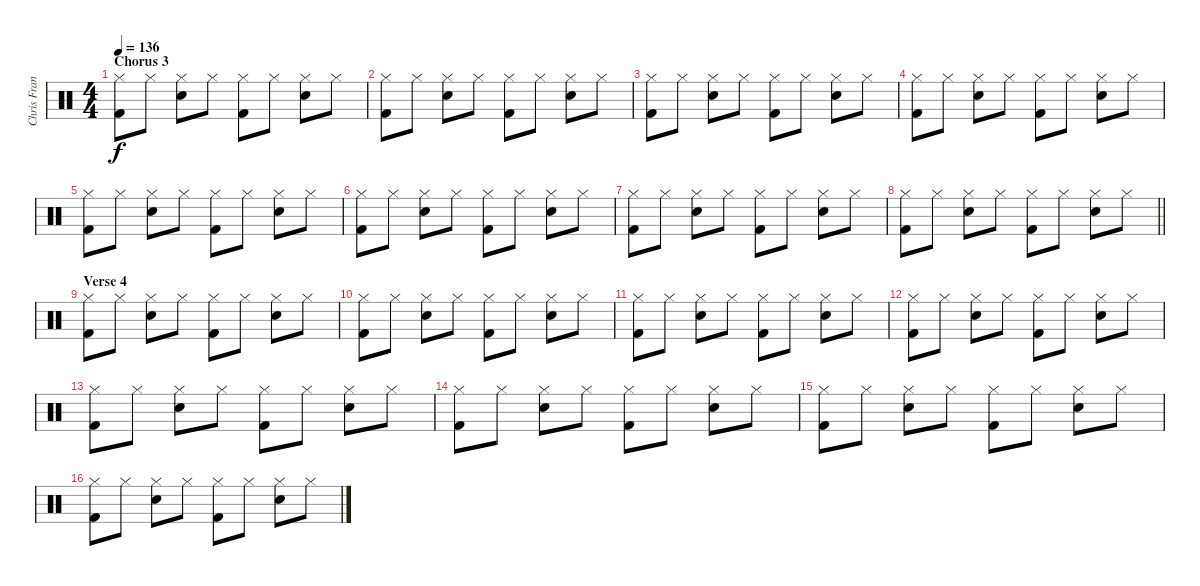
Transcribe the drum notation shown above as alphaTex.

\track ("Chris Frantz" "Chris Fran") {instrument percussion}
\staff {score}
\articulation defaults
\ts (4 4)
\section ("" "Chorus 3")
\tempo 136
\clef neutral
\ks c
("Hi-Hat (closed)" "Kick (hit) 2").8{dy f} "Hi-Hat (closed)".8 ("Hi-Hat (closed)" "Electric Snare (hit)").8 "Hi-Hat (closed)".8 ("Hi-Hat (closed)" "Kick (hit) 2").8 "Hi-Hat (closed)".8 ("Hi-Hat (closed)" "Electric Snare (hit)").8 "Hi-Hat (closed)".8 |
("Hi-Hat (closed)" "Kick (hit) 2").8 "Hi-Hat (closed)".8 ("Hi-Hat (closed)" "Electric Snare (hit)").8 "Hi-Hat (closed)".8 ("Hi-Hat (closed)" "Kick (hit) 2").8 "Hi-Hat (closed)".8 ("Hi-Hat (closed)" "Electric Snare (hit)").8 "Hi-Hat (closed)".8 |
("Hi-Hat (closed)" "Kick (hit) 2").8 "Hi-Hat (closed)".8 ("Hi-Hat (closed)" "Electric Snare (hit)").8 "Hi-Hat (closed)".8 ("Hi-Hat (closed)" "Kick (hit) 2").8 "Hi-Hat (closed)".8 ("Hi-Hat (closed)" "Electric Snare (hit)").8 "Hi-Hat (closed)".8 |
("Hi-Hat (closed)" "Kick (hit) 2").8 "Hi-Hat (closed)".8 ("Hi-Hat (closed)" "Electric Snare (hit)").8 "Hi-Hat (closed)".8 ("Hi-Hat (closed)" "Kick (hit) 2").8 "Hi-Hat (closed)".8 ("Hi-Hat (closed)" "Electric Snare (hit)").8 "Hi-Hat (closed)".8 |
("Hi-Hat (closed)" "Kick (hit) 2").8 "Hi-Hat (closed)".8 ("Hi-Hat (closed)" "Electric Snare (hit)").8 "Hi-Hat (closed)".8 ("Hi-Hat (closed)" "Kick (hit) 2").8 "Hi-Hat (closed)".8 ("Hi-Hat (closed)" "Electric Snare (hit)").8 "Hi-Hat (closed)".8 |
("Hi-Hat (closed)" "Kick (hit) 2").8 "Hi-Hat (closed)".8 ("Hi-Hat (closed)" "Electric Snare (hit)").8 "Hi-Hat (closed)".8 ("Hi-Hat (closed)" "Kick (hit) 2").8 "Hi-Hat (closed)".8 ("Hi-Hat (closed)" "Electric Snare (hit)").8 "Hi-Hat (closed)".8 |
("Hi-Hat (closed)" "Kick (hit) 2").8 "Hi-Hat (closed)".8 ("Hi-Hat (closed)" "Electric Snare (hit)").8 "Hi-Hat (closed)".8 ("Hi-Hat (closed)" "Kick (hit) 2").8 "Hi-Hat (closed)".8 ("Hi-Hat (closed)" "Electric Snare (hit)").8 "Hi-Hat (closed)".8 |
\barLineRight lightlight
("Hi-Hat (closed)" "Kick (hit) 2").8 "Hi-Hat (closed)".8 ("Hi-Hat (closed)" "Electric Snare (hit)").8 "Hi-Hat (closed)".8 ("Hi-Hat (closed)" "Kick (hit) 2").8 "Hi-Hat (closed)".8 ("Hi-Hat (closed)" "Electric Snare (hit)").8 "Hi-Hat (closed)".8 |
\section ("" "Verse 4")
("Hi-Hat (closed)" "Kick (hit) 2").8 "Hi-Hat (closed)".8 ("Hi-Hat (closed)" "Electric Snare (hit)").8 "Hi-Hat (closed)".8 ("Hi-Hat (closed)" "Kick (hit) 2").8 "Hi-Hat (closed)".8 ("Hi-Hat (closed)" "Electric Snare (hit)").8 "Hi-Hat (closed)".8 |
("Hi-Hat (closed)" "Kick (hit) 2").8 "Hi-Hat (closed)".8 ("Hi-Hat (closed)" "Electric Snare (hit)").8 "Hi-Hat (closed)".8 ("Hi-Hat (closed)" "Kick (hit) 2").8 "Hi-Hat (closed)".8 ("Hi-Hat (closed)" "Electric Snare (hit)").8 "Hi-Hat (closed)".8 |
("Hi-Hat (closed)" "Kick (hit) 2").8 "Hi-Hat (closed)".8 ("Hi-Hat (closed)" "Electric Snare (hit)").8 "Hi-Hat (closed)".8 ("Hi-Hat (closed)" "Kick (hit) 2").8 "Hi-Hat (closed)".8 ("Hi-Hat (closed)" "Electric Snare (hit)").8 "Hi-Hat (closed)".8 |
("Hi-Hat (closed)" "Kick (hit) 2").8 "Hi-Hat (closed)".8 ("Hi-Hat (closed)" "Electric Snare (hit)").8 "Hi-Hat (closed)".8 ("Hi-Hat (closed)" "Kick (hit) 2").8 "Hi-Hat (closed)".8 ("Hi-Hat (closed)" "Electric Snare (hit)").8 "Hi-Hat (closed)".8 |
("Hi-Hat (closed)" "Kick (hit) 2").8 "Hi-Hat (closed)".8 ("Hi-Hat (closed)" "Electric Snare (hit)").8 "Hi-Hat (closed)".8 ("Hi-Hat (closed)" "Kick (hit) 2").8 "Hi-Hat (closed)".8 ("Hi-Hat (closed)" "Electric Snare (hit)").8 "Hi-Hat (closed)".8 |
("Hi-Hat (closed)" "Kick (hit) 2").8 "Hi-Hat (closed)".8 ("Hi-Hat (closed)" "Electric Snare (hit)").8 "Hi-Hat (closed)".8 ("Hi-Hat (closed)" "Kick (hit) 2").8 "Hi-Hat (closed)".8 ("Hi-Hat (closed)" "Electric Snare (hit)").8 "Hi-Hat (closed)".8 |
("Hi-Hat (closed)" "Kick (hit) 2").8 "Hi-Hat (closed)".8 ("Hi-Hat (closed)" "Electric Snare (hit)").8 "Hi-Hat (closed)".8 ("Hi-Hat (closed)" "Kick (hit) 2").8 "Hi-Hat (closed)".8 ("Hi-Hat (closed)" "Electric Snare (hit)").8 "Hi-Hat (closed)".8 |
("Hi-Hat (closed)" "Kick (hit) 2").8 "Hi-Hat (closed)".8 ("Hi-Hat (closed)" "Electric Snare (hit)").8 "Hi-Hat (closed)".8 ("Hi-Hat (closed)" "Kick (hit) 2").8 "Hi-Hat (closed)".8 ("Hi-Hat (closed)" "Electric Snare (hit)").8 "Hi-Hat (closed)".8
